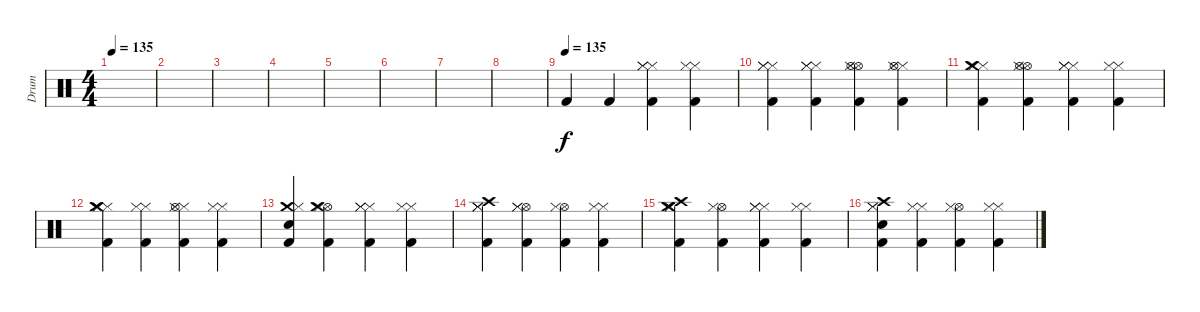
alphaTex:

\track ("Drum" "Drum") {instrument percussion}
\staff {score}
\articulation defaults
\ts (4 4)
\tempo 135
\clef neutral
\ks c
|
|
|
|
|
|
|
|
\tempo (135)
"Kick (hit) 2".4 "Kick (hit) 2".4 ("Hi-Hat (closed)" "Kick (hit) 2" "Hi-Hat (closed)" "Hi-Hat (closed)").4 ("Hi-Hat (closed)" "Kick (hit) 2" "Hi-Hat (closed)").4 |
("Hi-Hat (closed)" "Kick (hit) 2" "Hi-Hat (closed)" "Hi-Hat (closed)").4 ("Hi-Hat (closed)" "Kick (hit) 2" "Hi-Hat (closed)" "Hi-Hat (closed)").4 ("Hi-Hat (open)" "Kick (hit) 2" "Hi-Hat (open)" "Hi-Hat (closed)").4 ("Hi-Hat (closed)" "Kick (hit) 2" "Hi-Hat (open)" "Hi-Hat (closed)").4 |
("Hi-Hat (closed)" "Kick (hit) 2" "Crash medium (hit)" "Hi-Hat (closed)").4 ("Hi-Hat (open)" "Kick (hit) 2" "Hi-Hat (open)" "Hi-Hat (closed)").4 ("Hi-Hat (closed)" "Kick (hit) 2" "Hi-Hat (closed)" "Hi-Hat (closed)").4 ("Hi-Hat (closed)" "Kick (hit) 2" "Hi-Hat (closed)").4 |
("Hi-Hat (closed)" "Kick (hit) 2" "Crash medium (hit)" "Hi-Hat (closed)" "Hi-Hat (closed)").4 ("Kick (hit) 2" "Hi-Hat (closed)" "Hi-Hat (closed)").4 ("Hi-Hat (closed)" "Kick (hit) 2" "Hi-Hat (open)" "Hi-Hat (closed)").4 ("Hi-Hat (closed)" "Kick (hit) 2" "Hi-Hat (closed)").4 |
("Snare (hit)" "Kick (hit) 2" "Crash medium (hit)" "Hi-Hat (closed)").4 ("Hi-Hat (open)" "Kick (hit) 2" "Crash medium (hit)" "Hi-Hat (closed)").4 ("Hi-Hat (closed)" "Kick (hit) 2" "Hi-Hat (closed)" "Hi-Hat (closed)").4 ("Hi-Hat (closed)" "Kick (hit) 2" "Hi-Hat (closed)").4 |
("Hi-Hat (closed)" "Kick (hit) 2" "Crash high (hit)" "Hi-Hat (closed)" "Hi-Hat (closed)").4 ("Hi-Hat (open)" "Kick (hit) 2" "Hi-Hat (closed)" "Hi-Hat (closed)").4 ("Kick (hit) 2" "Hi-Hat (open)" "Hi-Hat (closed)").4 ("Hi-Hat (closed)" "Kick (hit) 2" "Hi-Hat (closed)").4 |
("Kick (hit) 2" "Crash high (hit)" "Hi-Hat (closed)" "Crash medium (hit)" "Hi-Hat (closed)").4 ("Hi-Hat (open)" "Kick (hit) 2" "Hi-Hat (closed)").4 ("Hi-Hat (closed)" "Kick (hit) 2" "Hi-Hat (closed)" "Hi-Hat (closed)").4 ("Hi-Hat (closed)" "Kick (hit) 2" "Hi-Hat (closed)").4 |
("Hi-Hat (closed)" "Kick (hit) 2" "Crash high (hit)" "Hi-Hat (closed)" "Snare (hit) 2").4 ("Kick (hit) 2" "Hi-Hat (closed)" "Hi-Hat (closed)").4 ("Kick (hit) 2" "Hi-Hat (open)" "Hi-Hat (closed)").4 ("Hi-Hat (closed)" "Kick (hit) 2" "Hi-Hat (closed)").4
